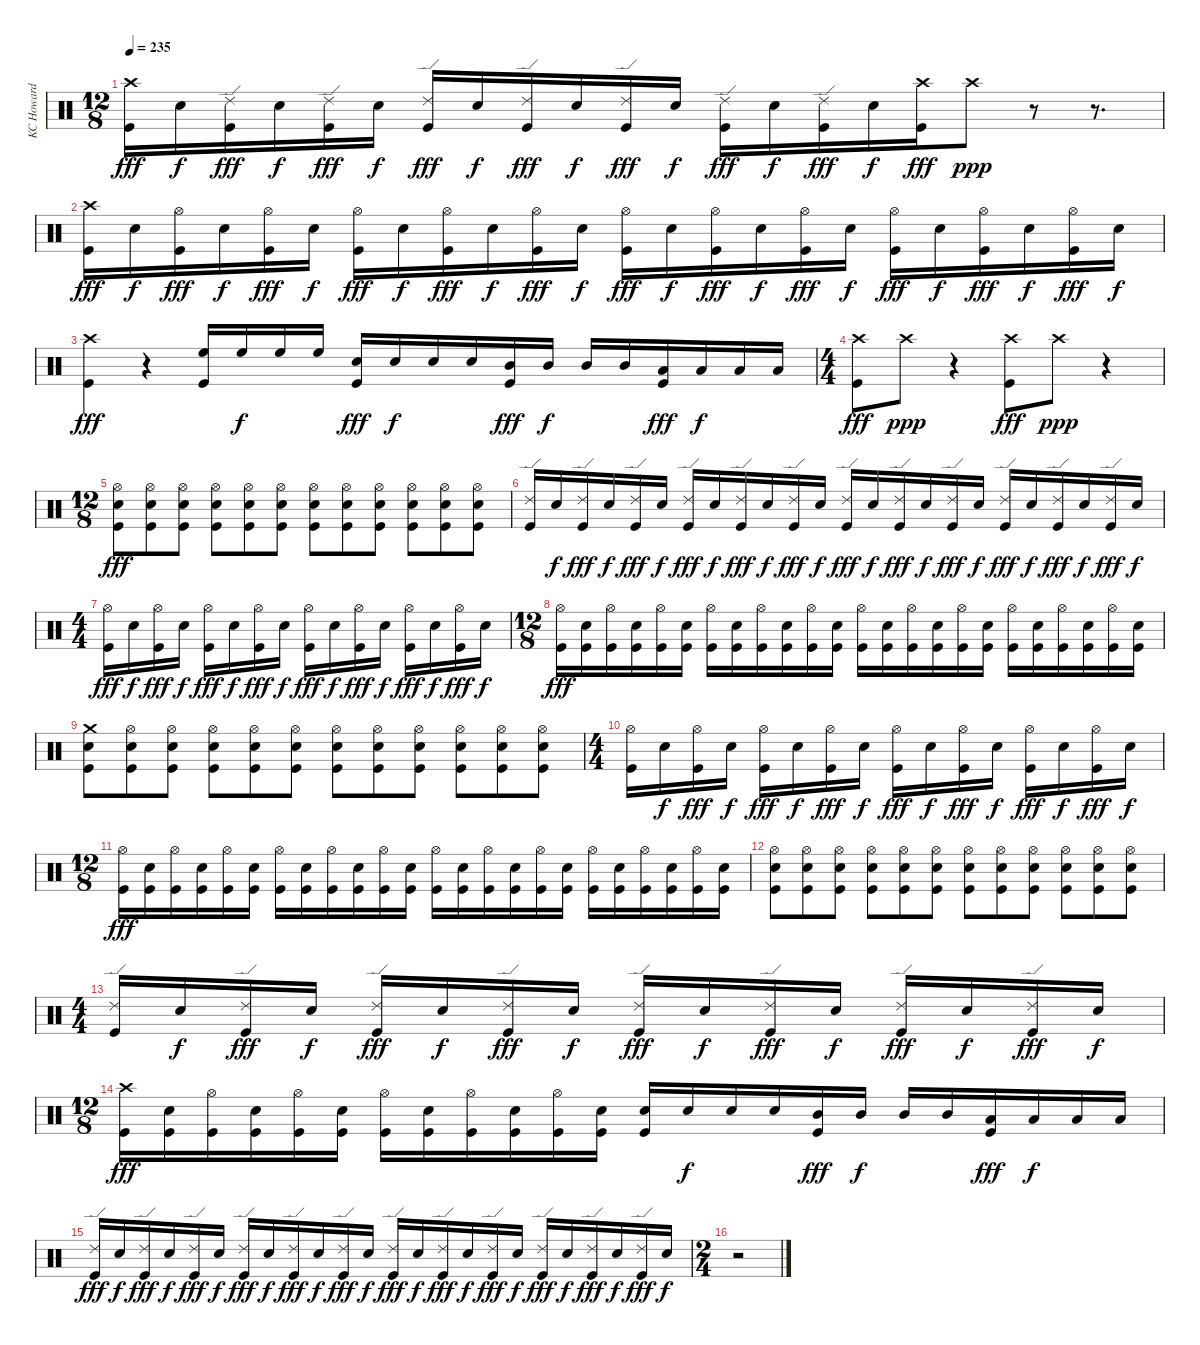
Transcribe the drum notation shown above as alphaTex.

\track ("KC Howard" "KC Howard") {instrument percussion}
\staff {score}
\articulation defaults
\ts (12 8)
\tempo 235
\clef neutral
\ks c
("Crash high (hit)" "Kick (hit)").16{dy fff} "Electric Snare (hit)".16{dy f} ("Ride (edge) 2" "Kick (hit)").16{dy fff} "Electric Snare (hit)".16{dy f} ("Ride (edge) 2" "Kick (hit)").16{dy fff} "Electric Snare (hit)".16{dy f} ("Ride (edge) 2" "Kick (hit)").16{dy fff} "Electric Snare (hit)".16{dy f} ("Ride (edge) 2" "Kick (hit)").16{dy fff} "Electric Snare (hit)".16{dy f} ("Ride (edge) 2" "Kick (hit)").16{dy fff} "Electric Snare (hit)".16{dy f} ("Ride (edge) 2" "Kick (hit)").16{dy fff} "Electric Snare (hit)".16{dy f} ("Ride (edge) 2" "Kick (hit)").16{dy fff} "Electric Snare (hit)".16{dy f} ("Crash high (hit)" "Kick (hit)").16{dy fff} "Crash high (hit)".8{dy ppp} r.8 r.8{d} |
("Crash high (hit)" "Kick (hit)").16{dy fff} "Electric Snare (hit)".16{dy f} ("Hi-Hat (open)" "Kick (hit)").16{dy fff} "Electric Snare (hit)".16{dy f} ("Hi-Hat (open)" "Kick (hit)").16{dy fff} "Electric Snare (hit)".16{dy f} ("Hi-Hat (open)" "Kick (hit)").16{dy fff} "Electric Snare (hit)".16{dy f} ("Hi-Hat (open)" "Kick (hit)").16{dy fff} "Electric Snare (hit)".16{dy f} ("Hi-Hat (open)" "Kick (hit)").16{dy fff} "Electric Snare (hit)".16{dy f} ("Hi-Hat (open)" "Kick (hit)").16{dy fff} "Electric Snare (hit)".16{dy f} ("Hi-Hat (open)" "Kick (hit)").16{dy fff} "Electric Snare (hit)".16{dy f} ("Hi-Hat (open)" "Kick (hit)").16{dy fff} "Electric Snare (hit)".16{dy f} ("Hi-Hat (open)" "Kick (hit)").16{dy fff} "Electric Snare (hit)".16{dy f} ("Hi-Hat (open)" "Kick (hit)").16{dy fff} "Electric Snare (hit)".16{dy f} ("Hi-Hat (open)" "Kick (hit)").16{dy fff} "Electric Snare (hit)".16{dy f} |
("Crash high (hit)" "Kick (hit)").4{dy fff} r.4 ("High Floor Tom (hit)" "Kick (hit)").16 "High Floor Tom (hit)".16{dy f} "High Floor Tom (hit)".16 "High Floor Tom (hit)".16 ("Electric Snare (hit)" "Kick (hit)").16{dy fff} "Electric Snare (hit)".16{dy f} "Electric Snare (hit)".16 "Electric Snare (hit)".16 ("Mid Tom (hit)" "Kick (hit)").16{dy fff} "Mid Tom (hit)".16{dy f} "Mid Tom (hit)".16 "Mid Tom (hit)".16 ("Low Tom (hit)" "Kick (hit)").16{dy fff} "Low Tom (hit)".16{dy f} "Low Tom (hit)".16 "Low Tom (hit)".16 |
\ts (4 4)
("Crash high (hit)" "Kick (hit)").8{dy fff} "Crash high (hit)".8{dy ppp} r.4 ("Crash high (hit)" "Kick (hit)").8{dy fff} "Crash high (hit)".8{dy ppp} r.4 |
\ts (12 8)
("Hi-Hat (open)" "Electric Snare (hit)" "Kick (hit)").8{dy fff} ("Hi-Hat (open)" "Electric Snare (hit)" "Kick (hit)").8 ("Hi-Hat (open)" "Electric Snare (hit)" "Kick (hit)").8 ("Hi-Hat (open)" "Electric Snare (hit)" "Kick (hit)").8 ("Hi-Hat (open)" "Electric Snare (hit)" "Kick (hit)").8 ("Hi-Hat (open)" "Electric Snare (hit)" "Kick (hit)").8 ("Hi-Hat (open)" "Electric Snare (hit)" "Kick (hit)").8 ("Hi-Hat (open)" "Electric Snare (hit)" "Kick (hit)").8 ("Hi-Hat (open)" "Electric Snare (hit)" "Kick (hit)").8 ("Hi-Hat (open)" "Electric Snare (hit)" "Kick (hit)").8 ("Hi-Hat (open)" "Electric Snare (hit)" "Kick (hit)").8 ("Hi-Hat (open)" "Electric Snare (hit)" "Kick (hit)").8 |
("Ride (edge) 2" "Kick (hit)").16 "Electric Snare (hit)".16{dy f} ("Ride (edge) 2" "Kick (hit)").16{dy fff} "Electric Snare (hit)".16{dy f} ("Ride (edge) 2" "Kick (hit)").16{dy fff} "Electric Snare (hit)".16{dy f} ("Ride (edge) 2" "Kick (hit)").16{dy fff} "Electric Snare (hit)".16{dy f} ("Ride (edge) 2" "Kick (hit)").16{dy fff} "Electric Snare (hit)".16{dy f} ("Ride (edge) 2" "Kick (hit)").16{dy fff} "Electric Snare (hit)".16{dy f} ("Ride (edge) 2" "Kick (hit)").16{dy fff} "Electric Snare (hit)".16{dy f} ("Ride (edge) 2" "Kick (hit)").16{dy fff} "Electric Snare (hit)".16{dy f} ("Ride (edge) 2" "Kick (hit)").16{dy fff} "Electric Snare (hit)".16{dy f} ("Ride (edge) 2" "Kick (hit)").16{dy fff} "Electric Snare (hit)".16{dy f} ("Ride (edge) 2" "Kick (hit)").16{dy fff} "Electric Snare (hit)".16{dy f} ("Ride (edge) 2" "Kick (hit)").16{dy fff} "Electric Snare (hit)".16{dy f} |
\ts (4 4)
("Hi-Hat (open)" "Kick (hit)").16{dy fff} "Electric Snare (hit)".16{dy f} ("Hi-Hat (open)" "Kick (hit)").16{dy fff} "Electric Snare (hit)".16{dy f} ("Hi-Hat (open)" "Kick (hit)").16{dy fff} "Electric Snare (hit)".16{dy f} ("Hi-Hat (open)" "Kick (hit)").16{dy fff} "Electric Snare (hit)".16{dy f} ("Hi-Hat (open)" "Kick (hit)").16{dy fff} "Electric Snare (hit)".16{dy f} ("Hi-Hat (open)" "Kick (hit)").16{dy fff} "Electric Snare (hit)".16{dy f} ("Hi-Hat (open)" "Kick (hit)").16{dy fff} "Electric Snare (hit)".16{dy f} ("Hi-Hat (open)" "Kick (hit)").16{dy fff} "Electric Snare (hit)".16{dy f} |
\ts (12 8)
("Hi-Hat (open)" "Kick (hit)").16{dy fff} ("Electric Snare (hit)" "Kick (hit)").16 ("Hi-Hat (open)" "Kick (hit)").16 ("Electric Snare (hit)" "Kick (hit)").16 ("Hi-Hat (open)" "Kick (hit)").16 ("Electric Snare (hit)" "Kick (hit)").16 ("Hi-Hat (open)" "Kick (hit)").16 ("Electric Snare (hit)" "Kick (hit)").16 ("Hi-Hat (open)" "Kick (hit)").16 ("Electric Snare (hit)" "Kick (hit)").16 ("Hi-Hat (open)" "Kick (hit)").16 ("Electric Snare (hit)" "Kick (hit)").16 ("Hi-Hat (open)" "Kick (hit)").16 ("Electric Snare (hit)" "Kick (hit)").16 ("Hi-Hat (open)" "Kick (hit)").16 ("Electric Snare (hit)" "Kick (hit)").16 ("Hi-Hat (open)" "Kick (hit)").16 ("Electric Snare (hit)" "Kick (hit)").16 ("Hi-Hat (open)" "Kick (hit)").16 ("Electric Snare (hit)" "Kick (hit)").16 ("Hi-Hat (open)" "Kick (hit)").16 ("Electric Snare (hit)" "Kick (hit)").16 ("Hi-Hat (open)" "Kick (hit)").16 ("Electric Snare (hit)" "Kick (hit)").16 |
("Crash medium (hit)" "Electric Snare (hit)" "Kick (hit)").8 ("Hi-Hat (open)" "Electric Snare (hit)" "Kick (hit)").8 ("Hi-Hat (open)" "Electric Snare (hit)" "Kick (hit)").8 ("Hi-Hat (open)" "Electric Snare (hit)" "Kick (hit)").8 ("Hi-Hat (open)" "Electric Snare (hit)" "Kick (hit)").8 ("Hi-Hat (open)" "Electric Snare (hit)" "Kick (hit)").8 ("Hi-Hat (open)" "Electric Snare (hit)" "Kick (hit)").8 ("Hi-Hat (open)" "Electric Snare (hit)" "Kick (hit)").8 ("Hi-Hat (open)" "Electric Snare (hit)" "Kick (hit)").8 ("Hi-Hat (open)" "Electric Snare (hit)" "Kick (hit)").8 ("Hi-Hat (open)" "Electric Snare (hit)" "Kick (hit)").8 ("Hi-Hat (open)" "Electric Snare (hit)" "Kick (hit)").8 |
\ts (4 4)
("Hi-Hat (open)" "Kick (hit)").16 "Electric Snare (hit)".16{dy f} ("Hi-Hat (open)" "Kick (hit)").16{dy fff} "Electric Snare (hit)".16{dy f} ("Hi-Hat (open)" "Kick (hit)").16{dy fff} "Electric Snare (hit)".16{dy f} ("Hi-Hat (open)" "Kick (hit)").16{dy fff} "Electric Snare (hit)".16{dy f} ("Hi-Hat (open)" "Kick (hit)").16{dy fff} "Electric Snare (hit)".16{dy f} ("Hi-Hat (open)" "Kick (hit)").16{dy fff} "Electric Snare (hit)".16{dy f} ("Hi-Hat (open)" "Kick (hit)").16{dy fff} "Electric Snare (hit)".16{dy f} ("Hi-Hat (open)" "Kick (hit)").16{dy fff} "Electric Snare (hit)".16{dy f} |
\ts (12 8)
("Hi-Hat (open)" "Kick (hit)").16{dy fff} ("Electric Snare (hit)" "Kick (hit)").16 ("Hi-Hat (open)" "Kick (hit)").16 ("Electric Snare (hit)" "Kick (hit)").16 ("Hi-Hat (open)" "Kick (hit)").16 ("Electric Snare (hit)" "Kick (hit)").16 ("Hi-Hat (open)" "Kick (hit)").16 ("Electric Snare (hit)" "Kick (hit)").16 ("Hi-Hat (open)" "Kick (hit)").16 ("Electric Snare (hit)" "Kick (hit)").16 ("Hi-Hat (open)" "Kick (hit)").16 ("Electric Snare (hit)" "Kick (hit)").16 ("Hi-Hat (open)" "Kick (hit)").16 ("Electric Snare (hit)" "Kick (hit)").16 ("Hi-Hat (open)" "Kick (hit)").16 ("Electric Snare (hit)" "Kick (hit)").16 ("Hi-Hat (open)" "Kick (hit)").16 ("Electric Snare (hit)" "Kick (hit)").16 ("Hi-Hat (open)" "Kick (hit)").16 ("Electric Snare (hit)" "Kick (hit)").16 ("Hi-Hat (open)" "Kick (hit)").16 ("Electric Snare (hit)" "Kick (hit)").16 ("Hi-Hat (open)" "Kick (hit)").16 ("Electric Snare (hit)" "Kick (hit)").16 |
("Hi-Hat (open)" "Electric Snare (hit)" "Kick (hit)").8 ("Hi-Hat (open)" "Electric Snare (hit)" "Kick (hit)").8 ("Hi-Hat (open)" "Electric Snare (hit)" "Kick (hit)").8 ("Hi-Hat (open)" "Electric Snare (hit)" "Kick (hit)").8 ("Hi-Hat (open)" "Electric Snare (hit)" "Kick (hit)").8 ("Hi-Hat (open)" "Electric Snare (hit)" "Kick (hit)").8 ("Hi-Hat (open)" "Electric Snare (hit)" "Kick (hit)").8 ("Hi-Hat (open)" "Electric Snare (hit)" "Kick (hit)").8 ("Hi-Hat (open)" "Electric Snare (hit)" "Kick (hit)").8 ("Hi-Hat (open)" "Electric Snare (hit)" "Kick (hit)").8 ("Hi-Hat (open)" "Electric Snare (hit)" "Kick (hit)").8 ("Hi-Hat (open)" "Electric Snare (hit)" "Kick (hit)").8 |
\ts (4 4)
("Ride (edge) 2" "Kick (hit)").16 "Electric Snare (hit)".16{dy f} ("Ride (edge) 2" "Kick (hit)").16{dy fff} "Electric Snare (hit)".16{dy f} ("Ride (edge) 2" "Kick (hit)").16{dy fff} "Electric Snare (hit)".16{dy f} ("Ride (edge) 2" "Kick (hit)").16{dy fff} "Electric Snare (hit)".16{dy f} ("Ride (edge) 2" "Kick (hit)").16{dy fff} "Electric Snare (hit)".16{dy f} ("Ride (edge) 2" "Kick (hit)").16{dy fff} "Electric Snare (hit)".16{dy f} ("Ride (edge) 2" "Kick (hit)").16{dy fff} "Electric Snare (hit)".16{dy f} ("Ride (edge) 2" "Kick (hit)").16{dy fff} "Electric Snare (hit)".16{dy f} |
\ts (12 8)
("Crash high (hit)" "Kick (hit)").16{dy fff} ("Electric Snare (hit)" "Kick (hit)").16 ("Hi-Hat (open)" "Kick (hit)").16 ("Electric Snare (hit)" "Kick (hit)").16 ("Hi-Hat (open)" "Kick (hit)").16 ("Electric Snare (hit)" "Kick (hit)").16 ("Hi-Hat (open)" "Kick (hit)").16 ("Electric Snare (hit)" "Kick (hit)").16 ("Hi-Hat (open)" "Kick (hit)").16 ("Electric Snare (hit)" "Kick (hit)").16 ("Hi-Hat (open)" "Kick (hit)").16 ("Electric Snare (hit)" "Kick (hit)").16 ("Electric Snare (hit)" "Kick (hit)").16 "Electric Snare (hit)".16{dy f} "Electric Snare (hit)".16 "Electric Snare (hit)".16 ("Mid Tom (hit)" "Kick (hit)").16{dy fff} "Mid Tom (hit)".16{dy f} "Mid Tom (hit)".16 "Mid Tom (hit)".16 ("Low Tom (hit)" "Kick (hit)").16{dy fff} "Low Tom (hit)".16{dy f} "Low Tom (hit)".16 "Low Tom (hit)".16 |
("Ride (edge) 2" "Kick (hit)").16{dy fff} "Electric Snare (hit)".16{dy f} ("Ride (edge) 2" "Kick (hit)").16{dy fff} "Electric Snare (hit)".16{dy f} ("Ride (edge) 2" "Kick (hit)").16{dy fff} "Electric Snare (hit)".16{dy f} ("Ride (edge) 2" "Kick (hit)").16{dy fff} "Electric Snare (hit)".16{dy f} ("Ride (edge) 2" "Kick (hit)").16{dy fff} "Electric Snare (hit)".16{dy f} ("Ride (edge) 2" "Kick (hit)").16{dy fff} "Electric Snare (hit)".16{dy f} ("Ride (edge) 2" "Kick (hit)").16{dy fff} "Electric Snare (hit)".16{dy f} ("Ride (edge) 2" "Kick (hit)").16{dy fff} "Electric Snare (hit)".16{dy f} ("Ride (edge) 2" "Kick (hit)").16{dy fff} "Electric Snare (hit)".16{dy f} ("Ride (edge) 2" "Kick (hit)").16{dy fff} "Electric Snare (hit)".16{dy f} ("Ride (edge) 2" "Kick (hit)").16{dy fff} "Electric Snare (hit)".16{dy f} ("Ride (edge) 2" "Kick (hit)").16{dy fff} "Electric Snare (hit)".16{dy f} |
\ts (2 4)
r.2
